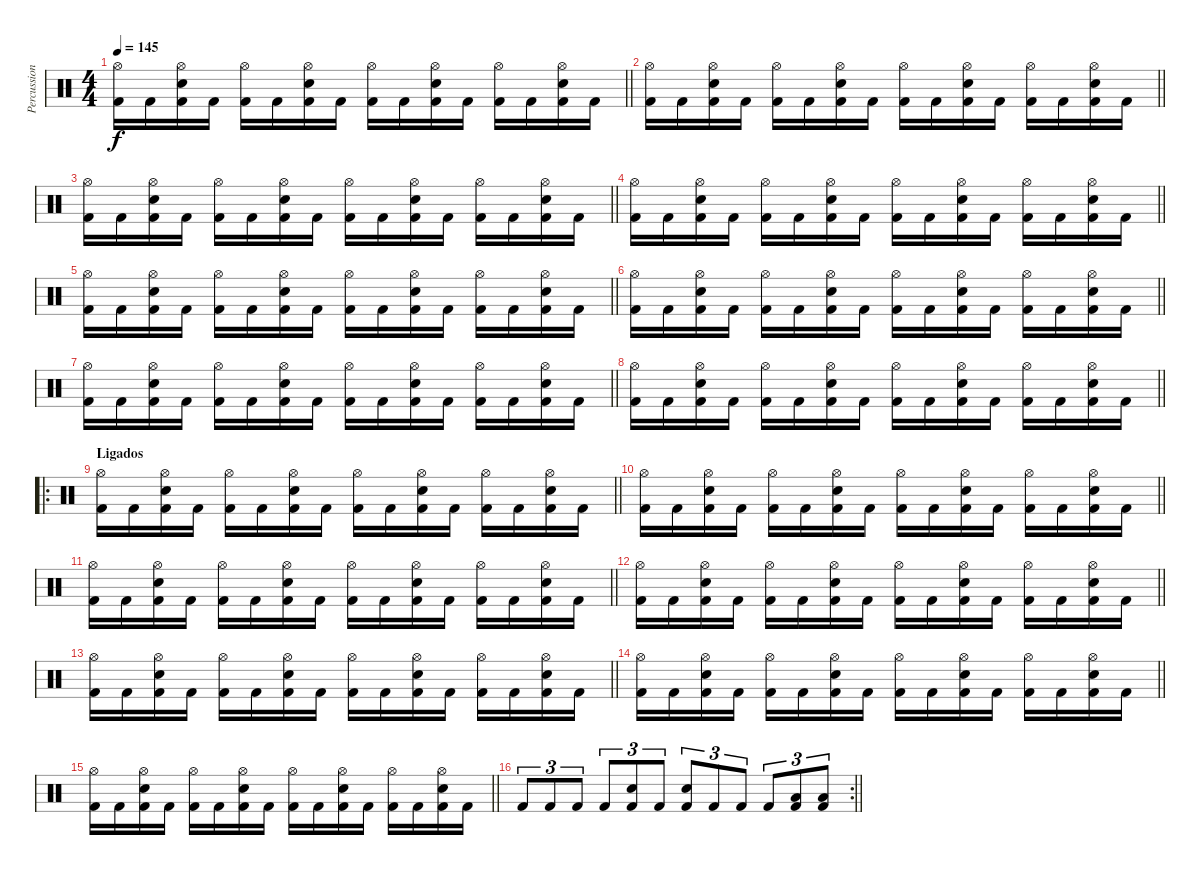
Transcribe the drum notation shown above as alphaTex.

\track ("Percussion" "Percussion") {instrument percussion}
\staff {score}
\articulation defaults
\ts (4 4)
\tempo 145
\clef neutral
\barLineRight lightlight
\ks c
("Hi-Hat (open)" "Kick (hit) 2").16{dy f} "Kick (hit) 2".16 ("Hi-Hat (open)" "Electric Snare (hit)" "Kick (hit) 2").16 "Kick (hit) 2".16 ("Hi-Hat (open)" "Kick (hit) 2").16 "Kick (hit) 2".16 ("Hi-Hat (open)" "Electric Snare (hit)" "Kick (hit) 2").16 "Kick (hit) 2".16 ("Hi-Hat (open)" "Kick (hit) 2").16 "Kick (hit) 2".16 ("Hi-Hat (open)" "Electric Snare (hit)" "Kick (hit) 2").16 "Kick (hit) 2".16 ("Hi-Hat (open)" "Kick (hit) 2").16 "Kick (hit) 2".16 ("Hi-Hat (open)" "Electric Snare (hit)" "Kick (hit) 2").16 "Kick (hit) 2".16 |
\barLineRight lightlight
("Hi-Hat (open)" "Kick (hit) 2").16 "Kick (hit) 2".16 ("Hi-Hat (open)" "Electric Snare (hit)" "Kick (hit) 2").16 "Kick (hit) 2".16 ("Hi-Hat (open)" "Kick (hit) 2").16 "Kick (hit) 2".16 ("Hi-Hat (open)" "Electric Snare (hit)" "Kick (hit) 2").16 "Kick (hit) 2".16 ("Hi-Hat (open)" "Kick (hit) 2").16 "Kick (hit) 2".16 ("Hi-Hat (open)" "Electric Snare (hit)" "Kick (hit) 2").16 "Kick (hit) 2".16 ("Hi-Hat (open)" "Kick (hit) 2").16 "Kick (hit) 2".16 ("Hi-Hat (open)" "Electric Snare (hit)" "Kick (hit) 2").16 "Kick (hit) 2".16 |
\barLineRight lightlight
("Hi-Hat (open)" "Kick (hit) 2").16 "Kick (hit) 2".16 ("Hi-Hat (open)" "Electric Snare (hit)" "Kick (hit) 2").16 "Kick (hit) 2".16 ("Hi-Hat (open)" "Kick (hit) 2").16 "Kick (hit) 2".16 ("Hi-Hat (open)" "Electric Snare (hit)" "Kick (hit) 2").16 "Kick (hit) 2".16 ("Hi-Hat (open)" "Kick (hit) 2").16 "Kick (hit) 2".16 ("Hi-Hat (open)" "Electric Snare (hit)" "Kick (hit) 2").16 "Kick (hit) 2".16 ("Hi-Hat (open)" "Kick (hit) 2").16 "Kick (hit) 2".16 ("Hi-Hat (open)" "Electric Snare (hit)" "Kick (hit) 2").16 "Kick (hit) 2".16 |
\barLineRight lightlight
("Hi-Hat (open)" "Kick (hit) 2").16 "Kick (hit) 2".16 ("Hi-Hat (open)" "Electric Snare (hit)" "Kick (hit) 2").16 "Kick (hit) 2".16 ("Hi-Hat (open)" "Kick (hit) 2").16 "Kick (hit) 2".16 ("Hi-Hat (open)" "Electric Snare (hit)" "Kick (hit) 2").16 "Kick (hit) 2".16 ("Hi-Hat (open)" "Kick (hit) 2").16 "Kick (hit) 2".16 ("Hi-Hat (open)" "Electric Snare (hit)" "Kick (hit) 2").16 "Kick (hit) 2".16 ("Hi-Hat (open)" "Kick (hit) 2").16 "Kick (hit) 2".16 ("Hi-Hat (open)" "Electric Snare (hit)" "Kick (hit) 2").16 "Kick (hit) 2".16 |
\barLineRight lightlight
("Hi-Hat (open)" "Kick (hit) 2").16 "Kick (hit) 2".16 ("Hi-Hat (open)" "Electric Snare (hit)" "Kick (hit) 2").16 "Kick (hit) 2".16 ("Hi-Hat (open)" "Kick (hit) 2").16 "Kick (hit) 2".16 ("Hi-Hat (open)" "Electric Snare (hit)" "Kick (hit) 2").16 "Kick (hit) 2".16 ("Hi-Hat (open)" "Kick (hit) 2").16 "Kick (hit) 2".16 ("Hi-Hat (open)" "Electric Snare (hit)" "Kick (hit) 2").16 "Kick (hit) 2".16 ("Hi-Hat (open)" "Kick (hit) 2").16 "Kick (hit) 2".16 ("Hi-Hat (open)" "Electric Snare (hit)" "Kick (hit) 2").16 "Kick (hit) 2".16 |
\barLineRight lightlight
("Hi-Hat (open)" "Kick (hit) 2").16 "Kick (hit) 2".16 ("Hi-Hat (open)" "Electric Snare (hit)" "Kick (hit) 2").16 "Kick (hit) 2".16 ("Hi-Hat (open)" "Kick (hit) 2").16 "Kick (hit) 2".16 ("Hi-Hat (open)" "Electric Snare (hit)" "Kick (hit) 2").16 "Kick (hit) 2".16 ("Hi-Hat (open)" "Kick (hit) 2").16 "Kick (hit) 2".16 ("Hi-Hat (open)" "Electric Snare (hit)" "Kick (hit) 2").16 "Kick (hit) 2".16 ("Hi-Hat (open)" "Kick (hit) 2").16 "Kick (hit) 2".16 ("Hi-Hat (open)" "Electric Snare (hit)" "Kick (hit) 2").16 "Kick (hit) 2".16 |
\barLineRight lightlight
("Hi-Hat (open)" "Kick (hit) 2").16 "Kick (hit) 2".16 ("Hi-Hat (open)" "Electric Snare (hit)" "Kick (hit) 2").16 "Kick (hit) 2".16 ("Hi-Hat (open)" "Kick (hit) 2").16 "Kick (hit) 2".16 ("Hi-Hat (open)" "Electric Snare (hit)" "Kick (hit) 2").16 "Kick (hit) 2".16 ("Hi-Hat (open)" "Kick (hit) 2").16 "Kick (hit) 2".16 ("Hi-Hat (open)" "Electric Snare (hit)" "Kick (hit) 2").16 "Kick (hit) 2".16 ("Hi-Hat (open)" "Kick (hit) 2").16 "Kick (hit) 2".16 ("Hi-Hat (open)" "Electric Snare (hit)" "Kick (hit) 2").16 "Kick (hit) 2".16 |
\barLineRight lightlight
("Hi-Hat (open)" "Kick (hit) 2").16 "Kick (hit) 2".16 ("Hi-Hat (open)" "Electric Snare (hit)" "Kick (hit) 2").16 "Kick (hit) 2".16 ("Hi-Hat (open)" "Kick (hit) 2").16 "Kick (hit) 2".16 ("Hi-Hat (open)" "Electric Snare (hit)" "Kick (hit) 2").16 "Kick (hit) 2".16 ("Hi-Hat (open)" "Kick (hit) 2").16 "Kick (hit) 2".16 ("Hi-Hat (open)" "Electric Snare (hit)" "Kick (hit) 2").16 "Kick (hit) 2".16 ("Hi-Hat (open)" "Kick (hit) 2").16 "Kick (hit) 2".16 ("Hi-Hat (open)" "Electric Snare (hit)" "Kick (hit) 2").16 "Kick (hit) 2".16 |
\ro
\section ("" "Ligados")
\barLineRight lightlight
("Hi-Hat (open)" "Kick (hit) 2").16 "Kick (hit) 2".16 ("Hi-Hat (open)" "Electric Snare (hit)" "Kick (hit) 2").16 "Kick (hit) 2".16 ("Hi-Hat (open)" "Kick (hit) 2").16 "Kick (hit) 2".16 ("Hi-Hat (open)" "Electric Snare (hit)" "Kick (hit) 2").16 "Kick (hit) 2".16 ("Hi-Hat (open)" "Kick (hit) 2").16 "Kick (hit) 2".16 ("Hi-Hat (open)" "Electric Snare (hit)" "Kick (hit) 2").16 "Kick (hit) 2".16 ("Hi-Hat (open)" "Kick (hit) 2").16 "Kick (hit) 2".16 ("Hi-Hat (open)" "Electric Snare (hit)" "Kick (hit) 2").16 "Kick (hit) 2".16 |
\barLineRight lightlight
("Hi-Hat (open)" "Kick (hit) 2").16 "Kick (hit) 2".16 ("Hi-Hat (open)" "Electric Snare (hit)" "Kick (hit) 2").16 "Kick (hit) 2".16 ("Hi-Hat (open)" "Kick (hit) 2").16 "Kick (hit) 2".16 ("Hi-Hat (open)" "Electric Snare (hit)" "Kick (hit) 2").16 "Kick (hit) 2".16 ("Hi-Hat (open)" "Kick (hit) 2").16 "Kick (hit) 2".16 ("Hi-Hat (open)" "Electric Snare (hit)" "Kick (hit) 2").16 "Kick (hit) 2".16 ("Hi-Hat (open)" "Kick (hit) 2").16 "Kick (hit) 2".16 ("Hi-Hat (open)" "Electric Snare (hit)" "Kick (hit) 2").16 "Kick (hit) 2".16 |
\barLineRight lightlight
("Hi-Hat (open)" "Kick (hit) 2").16 "Kick (hit) 2".16 ("Hi-Hat (open)" "Electric Snare (hit)" "Kick (hit) 2").16 "Kick (hit) 2".16 ("Hi-Hat (open)" "Kick (hit) 2").16 "Kick (hit) 2".16 ("Hi-Hat (open)" "Electric Snare (hit)" "Kick (hit) 2").16 "Kick (hit) 2".16 ("Hi-Hat (open)" "Kick (hit) 2").16 "Kick (hit) 2".16 ("Hi-Hat (open)" "Electric Snare (hit)" "Kick (hit) 2").16 "Kick (hit) 2".16 ("Hi-Hat (open)" "Kick (hit) 2").16 "Kick (hit) 2".16 ("Hi-Hat (open)" "Electric Snare (hit)" "Kick (hit) 2").16 "Kick (hit) 2".16 |
\barLineRight lightlight
("Hi-Hat (open)" "Kick (hit) 2").16 "Kick (hit) 2".16 ("Hi-Hat (open)" "Electric Snare (hit)" "Kick (hit) 2").16 "Kick (hit) 2".16 ("Hi-Hat (open)" "Kick (hit) 2").16 "Kick (hit) 2".16 ("Hi-Hat (open)" "Electric Snare (hit)" "Kick (hit) 2").16 "Kick (hit) 2".16 ("Hi-Hat (open)" "Kick (hit) 2").16 "Kick (hit) 2".16 ("Hi-Hat (open)" "Electric Snare (hit)" "Kick (hit) 2").16 "Kick (hit) 2".16 ("Hi-Hat (open)" "Kick (hit) 2").16 "Kick (hit) 2".16 ("Hi-Hat (open)" "Electric Snare (hit)" "Kick (hit) 2").16 "Kick (hit) 2".16 |
\barLineRight lightlight
("Hi-Hat (open)" "Kick (hit) 2").16 "Kick (hit) 2".16 ("Hi-Hat (open)" "Electric Snare (hit)" "Kick (hit) 2").16 "Kick (hit) 2".16 ("Hi-Hat (open)" "Kick (hit) 2").16 "Kick (hit) 2".16 ("Hi-Hat (open)" "Electric Snare (hit)" "Kick (hit) 2").16 "Kick (hit) 2".16 ("Hi-Hat (open)" "Kick (hit) 2").16 "Kick (hit) 2".16 ("Hi-Hat (open)" "Electric Snare (hit)" "Kick (hit) 2").16 "Kick (hit) 2".16 ("Hi-Hat (open)" "Kick (hit) 2").16 "Kick (hit) 2".16 ("Hi-Hat (open)" "Electric Snare (hit)" "Kick (hit) 2").16 "Kick (hit) 2".16 |
\barLineRight lightlight
("Hi-Hat (open)" "Kick (hit) 2").16 "Kick (hit) 2".16 ("Hi-Hat (open)" "Electric Snare (hit)" "Kick (hit) 2").16 "Kick (hit) 2".16 ("Hi-Hat (open)" "Kick (hit) 2").16 "Kick (hit) 2".16 ("Hi-Hat (open)" "Electric Snare (hit)" "Kick (hit) 2").16 "Kick (hit) 2".16 ("Hi-Hat (open)" "Kick (hit) 2").16 "Kick (hit) 2".16 ("Hi-Hat (open)" "Electric Snare (hit)" "Kick (hit) 2").16 "Kick (hit) 2".16 ("Hi-Hat (open)" "Kick (hit) 2").16 "Kick (hit) 2".16 ("Hi-Hat (open)" "Electric Snare (hit)" "Kick (hit) 2").16 "Kick (hit) 2".16 |
\barLineRight lightlight
("Hi-Hat (open)" "Kick (hit) 2").16 "Kick (hit) 2".16 ("Hi-Hat (open)" "Electric Snare (hit)" "Kick (hit) 2").16 "Kick (hit) 2".16 ("Hi-Hat (open)" "Kick (hit) 2").16 "Kick (hit) 2".16 ("Hi-Hat (open)" "Electric Snare (hit)" "Kick (hit) 2").16 "Kick (hit) 2".16 ("Hi-Hat (open)" "Kick (hit) 2").16 "Kick (hit) 2".16 ("Hi-Hat (open)" "Electric Snare (hit)" "Kick (hit) 2").16 "Kick (hit) 2".16 ("Hi-Hat (open)" "Kick (hit) 2").16 "Kick (hit) 2".16 ("Hi-Hat (open)" "Electric Snare (hit)" "Kick (hit) 2").16 "Kick (hit) 2".16 |
\rc 2
\barLineRight lightlight "Kick (hit) 2".8{tu (3 2)} "Kick (hit) 2".8{tu (3 2)} "Kick (hit) 2".8{tu (3 2)} "Kick (hit) 2".8{tu (3 2)}
("Electric Snare (hit)" "Kick (hit) 2").8{tu (3 2)} "Kick (hit) 2".8{tu (3 2)} ("Electric Snare (hit)" "Kick (hit) 2").8{tu (3 2)} "Kick (hit) 2".8{tu (3 2)} "Kick (hit) 2".8{tu (3 2)} "Kick (hit) 2".8{tu (3 2)} ("Low Floor Tom (hit)" "Kick (hit) 2").8{tu (3 2)} ("Low Floor Tom (hit)" "Kick (hit) 2").8{tu (3 2)}
